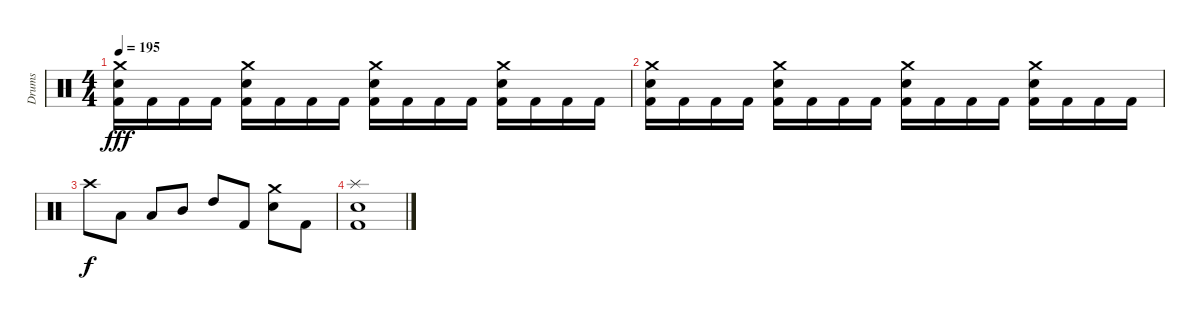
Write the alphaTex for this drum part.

\track ("Drums" "Drums") {instrument percussion}
\staff {score}
\articulation defaults
\ts (4 4)
\tempo 195
\clef neutral
\ks c
("Crash medium (hit)" "Snare (hit) 2" "Kick (hit) 2").16{dy fff} "Kick (hit) 2".16 "Kick (hit) 2".16 "Kick (hit) 2".16 ("Crash medium (hit)" "Snare (hit) 2" "Kick (hit) 2").16 "Kick (hit) 2".16 "Kick (hit) 2".16 "Kick (hit) 2".16 ("Crash medium (hit)" "Snare (hit) 2" "Kick (hit) 2").16 "Kick (hit) 2".16 "Kick (hit) 2".16 "Kick (hit) 2".16 ("Crash medium (hit)" "Snare (hit) 2" "Kick (hit) 2").16 "Kick (hit) 2".16 "Kick (hit) 2".16 "Kick (hit) 2".16 |
("Crash medium (hit)" "Snare (hit) 2" "Kick (hit) 2").16 "Kick (hit) 2".16 "Kick (hit) 2".16 "Kick (hit) 2".16 ("Crash medium (hit)" "Snare (hit) 2" "Kick (hit) 2").16 "Kick (hit) 2".16 "Kick (hit) 2".16 "Kick (hit) 2".16 ("Crash medium (hit)" "Snare (hit) 2" "Kick (hit) 2").16 "Kick (hit) 2".16 "Kick (hit) 2".16 "Kick (hit) 2".16 ("Crash medium (hit)" "Snare (hit) 2" "Kick (hit) 2").16 "Kick (hit) 2".16 "Kick (hit) 2".16 "Kick (hit) 2".16 |
"Crash high (hit)".8{dy f} "Low Tom (hit)".8 "Low Tom (hit)".8 "Mid Tom (hit)".8 "High Tom (hit)".8 "Kick (hit) 2".8 ("Crash medium (hit)" "Snare (hit) 2").8 "Kick (hit) 2".8 |
("Splash (hit)" "Snare (hit) 2" "Kick (hit) 2").1
